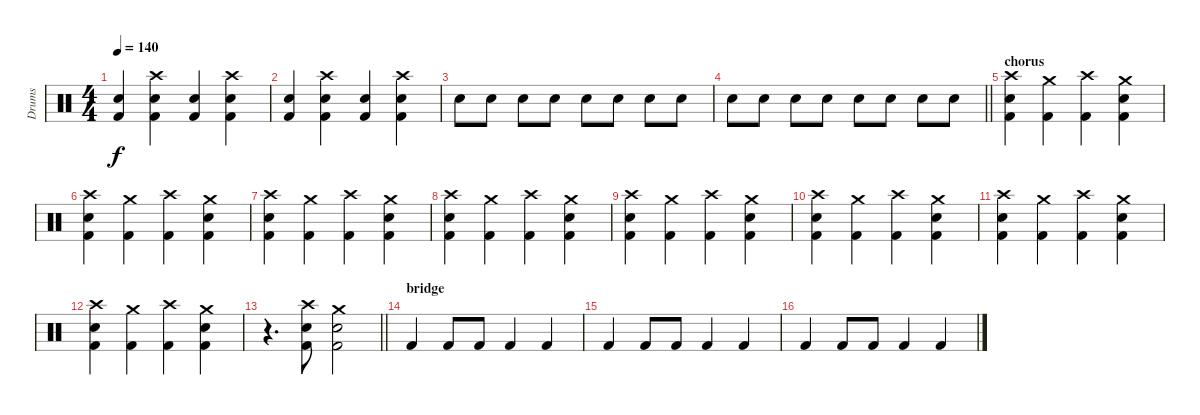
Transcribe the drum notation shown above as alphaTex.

\track ("Drums" "Drums") {instrument percussion}
\staff {score}
\articulation defaults
\ts (4 4)
\tempo 140
\clef neutral
\ks c
("Electric Snare (hit)" "Kick (hit) 2").4{dy f} ("Electric Snare (hit)" "Crash high (hit)" "Kick (hit) 2").4 ("Electric Snare (hit)" "Kick (hit) 2").4 ("Electric Snare (hit)" "Crash high (hit)" "Kick (hit) 2").4 |
("Electric Snare (hit)" "Kick (hit) 2").4 ("Electric Snare (hit)" "Crash high (hit)" "Kick (hit) 2").4 ("Electric Snare (hit)" "Kick (hit) 2").4 ("Electric Snare (hit)" "Crash high (hit)" "Kick (hit) 2").4 |
"Electric Snare (hit)".8 "Electric Snare (hit)".8 "Electric Snare (hit)".8 "Electric Snare (hit)".8 "Electric Snare (hit)".8 "Electric Snare (hit)".8 "Electric Snare (hit)".8 "Electric Snare (hit)".8 |
\barLineRight lightlight "Electric Snare (hit)".8 "Electric Snare (hit)".8 "Electric Snare (hit)".8 "Electric Snare (hit)".8 "Electric Snare (hit)".8 "Electric Snare (hit)".8 "Electric Snare (hit)".8 "Electric Snare (hit)".8
|
\section ("" "chorus")
("Electric Snare (hit)" "Crash high (hit)" "Kick (hit) 2").4 ("Kick (hit) 2" "Crash medium (hit)").4 ("Kick (hit) 2" "Crash high (hit)").4 ("Electric Snare (hit)" "Kick (hit) 2" "Crash medium (hit)").4 |
("Electric Snare (hit)" "Crash high (hit)" "Kick (hit) 2").4 ("Kick (hit) 2" "Crash medium (hit)").4 ("Kick (hit) 2" "Crash high (hit)").4 ("Electric Snare (hit)" "Kick (hit) 2" "Crash medium (hit)").4 |
("Electric Snare (hit)" "Crash high (hit)" "Kick (hit) 2").4 ("Kick (hit) 2" "Crash medium (hit)").4 ("Kick (hit) 2" "Crash high (hit)").4 ("Electric Snare (hit)" "Kick (hit) 2" "Crash medium (hit)").4 |
("Electric Snare (hit)" "Crash high (hit)" "Kick (hit) 2").4 ("Kick (hit) 2" "Crash medium (hit)").4 ("Kick (hit) 2" "Crash high (hit)").4 ("Electric Snare (hit)" "Kick (hit) 2" "Crash medium (hit)").4 |
("Electric Snare (hit)" "Crash high (hit)" "Kick (hit) 2").4 ("Kick (hit) 2" "Crash medium (hit)").4 ("Kick (hit) 2" "Crash high (hit)").4 ("Electric Snare (hit)" "Kick (hit) 2" "Crash medium (hit)").4 |
("Electric Snare (hit)" "Crash high (hit)" "Kick (hit) 2").4 ("Kick (hit) 2" "Crash medium (hit)").4 ("Kick (hit) 2" "Crash high (hit)").4 ("Electric Snare (hit)" "Kick (hit) 2" "Crash medium (hit)").4 |
("Electric Snare (hit)" "Crash high (hit)" "Kick (hit) 2").4 ("Kick (hit) 2" "Crash medium (hit)").4 ("Kick (hit) 2" "Crash high (hit)").4 ("Electric Snare (hit)" "Kick (hit) 2" "Crash medium (hit)").4 |
("Electric Snare (hit)" "Crash high (hit)" "Kick (hit) 2").4 ("Kick (hit) 2" "Crash medium (hit)").4 ("Kick (hit) 2" "Crash high (hit)").4 ("Electric Snare (hit)" "Kick (hit) 2" "Crash medium (hit)").4 |
\barLineRight lightlight
r.4{d} ("Electric Snare (hit)" "Kick (hit) 2" "Crash high (hit)").8 ("Electric Snare (hit)" "Kick (hit) 2" "Crash medium (hit)").2 |
\section ("" "bridge")
"Kick (hit) 2".4 "Kick (hit) 2".8 "Kick (hit) 2".8 "Kick (hit) 2".4 "Kick (hit) 2".4 |
"Kick (hit) 2".4 "Kick (hit) 2".8 "Kick (hit) 2".8 "Kick (hit) 2".4 "Kick (hit) 2".4 |
"Kick (hit) 2".4 "Kick (hit) 2".8 "Kick (hit) 2".8 "Kick (hit) 2".4 "Kick (hit) 2".4
